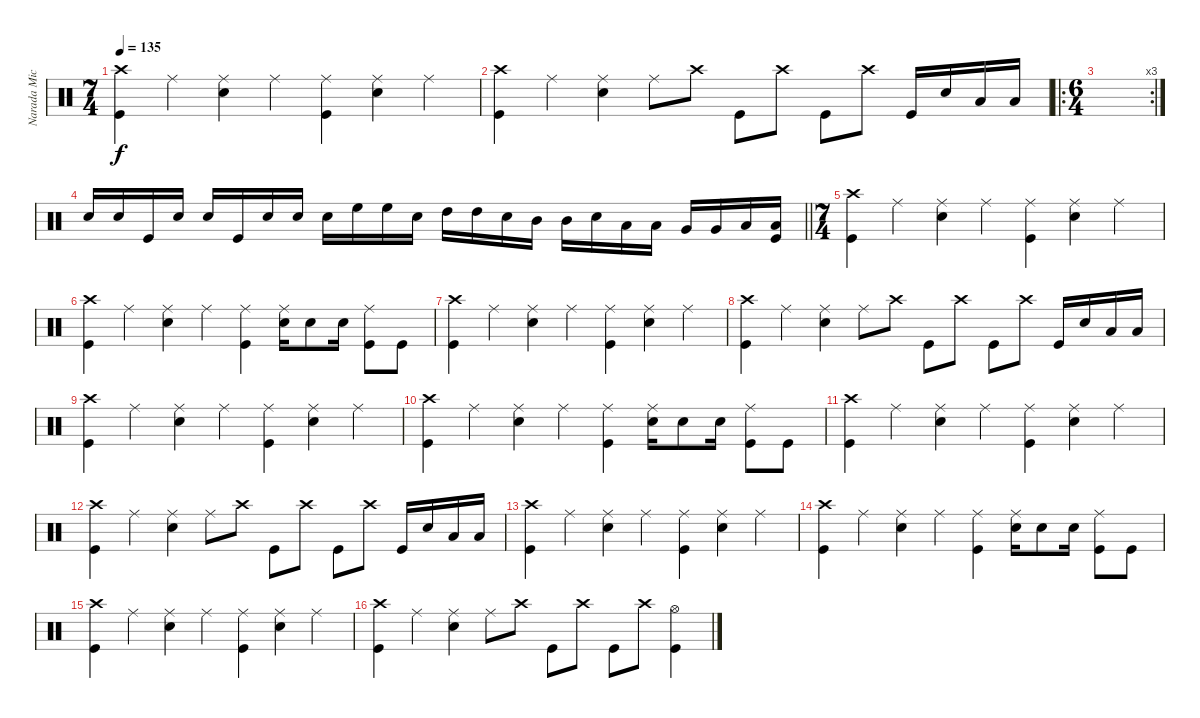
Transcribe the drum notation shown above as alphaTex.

\track ("Narada Michael Walden" "Narada Mic") {instrument percussion}
\staff {score}
\articulation defaults
\ts (7 4)
\tempo 135
\clef neutral
\ks c
("Kick (hit)" "Crash high (hit)").4{dy f} "Ride (middle)".4 ("Ride (middle)" "Snare (hit) 2").4 "Ride (middle)".4 ("Ride (middle)" "Kick (hit)").4 ("Ride (middle)" "Snare (hit) 2").4 "Ride (middle)".4 |
("Kick (hit)" "Crash high (hit)").4 "Ride (middle)".4 ("Ride (middle)" "Snare (hit) 2").4 "Ride (middle)".8 "Crash high (hit)".8 "Kick (hit)".8 "Crash high (hit)".8 "Kick (hit)".8 "Crash high (hit)".8 "Kick (hit)".16 "Snare (hit) 2".16 "Low Tom (hit)".16 "Low Tom (hit)".16 |
\ro
\rc 3
\ts (6 4)
|
\barLineRight lightlight "Snare (hit) 2".16 "Snare (hit) 2".16 "Kick (hit)".16 "Snare (hit) 2".16 "Snare (hit) 2".16 "Kick (hit)".16 "Snare (hit) 2".16 "Snare (hit) 2".16 "Snare (hit) 2".16 "High Floor Tom (hit)".16 "High Floor Tom (hit)".16 "Snare (hit) 2".16 "High Tom (hit)".16 "High Tom (hit)".16 "Snare (hit) 2".16 "Mid Tom (hit)".16 "Mid Tom (hit)".16 "Snare (hit) 2".16 "Low Tom (hit)".16 "Low Tom (hit)".16 "Very Low Tom (hit)".16 "Very Low Tom (hit)".16 "Low Floor Tom (hit)".16
("Low Floor Tom (hit)" "Kick (hit)").16 |
\ts (7 4)
("Kick (hit)" "Crash high (hit)").4 "Ride (middle)".4 ("Ride (middle)" "Snare (hit) 2").4 "Ride (middle)".4 ("Ride (middle)" "Kick (hit)").4 ("Ride (middle)" "Snare (hit) 2").4 "Ride (middle)".4 |
("Kick (hit)" "Crash high (hit)").4 "Ride (middle)".4 ("Ride (middle)" "Snare (hit) 2").4 "Ride (middle)".4 ("Ride (middle)" "Kick (hit)").4 ("Ride (middle)" "Snare (hit) 2").16 "Snare (hit) 2".8 "Snare (hit) 2".16 ("Kick (hit)" "Ride (middle)").8 "Kick (hit)".8 |
("Kick (hit)" "Crash high (hit)").4 "Ride (middle)".4 ("Ride (middle)" "Snare (hit) 2").4 "Ride (middle)".4 ("Ride (middle)" "Kick (hit)").4 ("Ride (middle)" "Snare (hit) 2").4 "Ride (middle)".4 |
("Kick (hit)" "Crash high (hit)").4 "Ride (middle)".4 ("Ride (middle)" "Snare (hit) 2").4 "Ride (middle)".8 "Crash high (hit)".8 "Kick (hit)".8 "Crash high (hit)".8 "Kick (hit)".8 "Crash high (hit)".8 "Kick (hit)".16 "Snare (hit) 2".16 "Low Tom (hit)".16 "Low Tom (hit)".16 |
("Kick (hit)" "Crash high (hit)").4 "Ride (middle)".4 ("Ride (middle)" "Snare (hit) 2").4 "Ride (middle)".4 ("Ride (middle)" "Kick (hit)").4 ("Ride (middle)" "Snare (hit) 2").4 "Ride (middle)".4 |
("Kick (hit)" "Crash high (hit)").4 "Ride (middle)".4 ("Ride (middle)" "Snare (hit) 2").4 "Ride (middle)".4 ("Ride (middle)" "Kick (hit)").4 ("Ride (middle)" "Snare (hit) 2").16 "Snare (hit) 2".8 "Snare (hit) 2".16 ("Kick (hit)" "Ride (middle)").8 "Kick (hit)".8 |
("Kick (hit)" "Crash high (hit)").4 "Ride (middle)".4 ("Ride (middle)" "Snare (hit) 2").4 "Ride (middle)".4 ("Ride (middle)" "Kick (hit)").4 ("Ride (middle)" "Snare (hit) 2").4 "Ride (middle)".4 |
("Kick (hit)" "Crash high (hit)").4 "Ride (middle)".4 ("Ride (middle)" "Snare (hit) 2").4 "Ride (middle)".8 "Crash high (hit)".8 "Kick (hit)".8 "Crash high (hit)".8 "Kick (hit)".8 "Crash high (hit)".8 "Kick (hit)".16 "Snare (hit) 2".16 "Low Tom (hit)".16 "Low Tom (hit)".16 |
("Kick (hit)" "Crash high (hit)").4 "Ride (middle)".4 ("Ride (middle)" "Snare (hit) 2").4 "Ride (middle)".4 ("Ride (middle)" "Kick (hit)").4 ("Ride (middle)" "Snare (hit) 2").4 "Ride (middle)".4 |
("Kick (hit)" "Crash high (hit)").4 "Ride (middle)".4 ("Ride (middle)" "Snare (hit) 2").4 "Ride (middle)".4 ("Ride (middle)" "Kick (hit)").4 ("Ride (middle)" "Snare (hit) 2").16 "Snare (hit) 2".8 "Snare (hit) 2".16 ("Kick (hit)" "Ride (middle)").8 "Kick (hit)".8 |
("Kick (hit)" "Crash high (hit)").4 "Ride (middle)".4 ("Ride (middle)" "Snare (hit) 2").4 "Ride (middle)".4 ("Ride (middle)" "Kick (hit)").4 ("Ride (middle)" "Snare (hit) 2").4 "Ride (middle)".4 |
("Kick (hit)" "Crash high (hit)").4 "Ride (middle)".4 ("Ride (middle)" "Snare (hit) 2").4 "Ride (middle)".8 "Crash high (hit)".8 "Kick (hit)".8 "Crash high (hit)".8 "Kick (hit)".8 "Crash high (hit)".8 ("Kick (hit)" "Hi-Hat (open)").4
